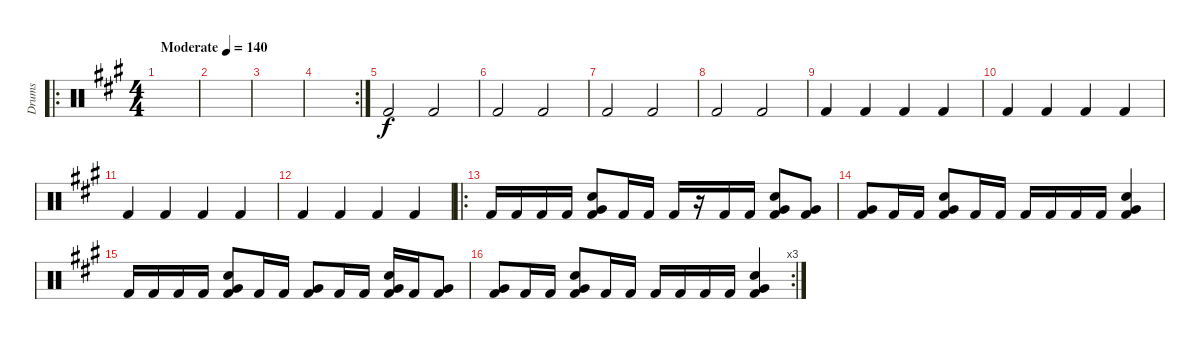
\track ("Drums" "Drums") {instrument percussion}
\staff {score}
\articulation defaults
\ro
\ts (4 4)
\tempo (140 "Moderate")
\clef neutral
\ks f#minor
|
|
|
\rc 2
|
"Kick (hit) 2".2 "Kick (hit) 2".2 |
"Kick (hit) 2".2 "Kick (hit) 2".2 |
"Kick (hit) 2".2 "Kick (hit) 2".2 |
"Kick (hit) 2".2 "Kick (hit) 2".2 |
"Kick (hit) 2".4 "Kick (hit) 2".4 "Kick (hit) 2".4 "Kick (hit) 2".4 |
"Kick (hit) 2".4 "Kick (hit) 2".4 "Kick (hit) 2".4 "Kick (hit) 2".4 |
"Kick (hit) 2".4 "Kick (hit) 2".4 "Kick (hit) 2".4 "Kick (hit) 2".4 |
"Kick (hit) 2".4 "Kick (hit) 2".4 "Kick (hit) 2".4 "Kick (hit) 2".4 |
\ro "Kick (hit) 2".16 "Kick (hit) 2".16 "Kick (hit) 2".16 "Kick (hit) 2".16
("Kick (hit) 2" "Very Low Tom (hit)" "Snare (hit) 2").8 "Kick (hit) 2".16 "Kick (hit) 2".16 "Kick (hit) 2".16 r.16 "Kick (hit) 2".16 "Kick (hit) 2".16 ("Kick (hit) 2" "Very Low Tom (hit)" "Snare (hit) 2").8 ("Kick (hit) 2" "Very Low Tom (hit)").8 |
("Kick (hit) 2" "Very Low Tom (hit)").8 "Kick (hit) 2".16 "Kick (hit) 2".16 ("Kick (hit) 2" "Very Low Tom (hit)" "Snare (hit) 2").8 "Kick (hit) 2".16 "Kick (hit) 2".16 "Kick (hit) 2".16 "Kick (hit) 2".16 "Kick (hit) 2".16 "Kick (hit) 2".16 ("Kick (hit) 2" "Very Low Tom (hit)" "Snare (hit) 2").4 |
"Kick (hit) 2".16 "Kick (hit) 2".16 "Kick (hit) 2".16 "Kick (hit) 2".16 ("Kick (hit) 2" "Very Low Tom (hit)" "Snare (hit) 2").8 "Kick (hit) 2".16 "Kick (hit) 2".16 ("Kick (hit) 2" "Very Low Tom (hit)").8 "Kick (hit) 2".16 "Kick (hit) 2".16 ("Kick (hit) 2" "Very Low Tom (hit)" "Snare (hit) 2").16 "Kick (hit) 2".16 ("Kick (hit) 2" "Very Low Tom (hit)").8 |
\rc 3
("Kick (hit) 2" "Very Low Tom (hit)").8 "Kick (hit) 2".16 "Kick (hit) 2".16 ("Kick (hit) 2" "Very Low Tom (hit)" "Snare (hit) 2").8 "Kick (hit) 2".16 "Kick (hit) 2".16 "Kick (hit) 2".16 "Kick (hit) 2".16 "Kick (hit) 2".16 "Kick (hit) 2".16 ("Kick (hit) 2" "Very Low Tom (hit)" "Snare (hit) 2").4
